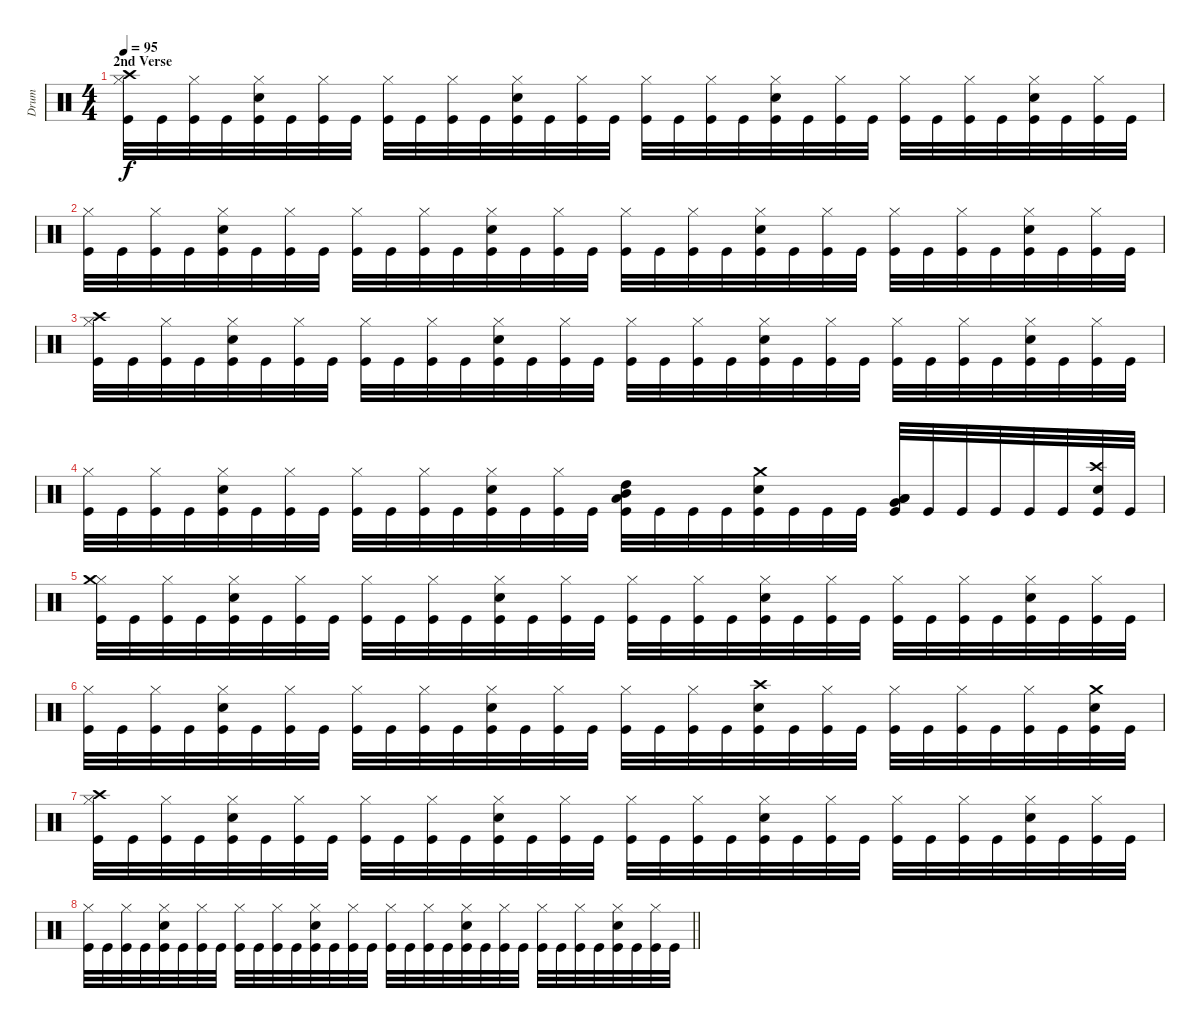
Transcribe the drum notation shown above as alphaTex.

\track ("Drum" "Drum") {instrument percussion}
\staff {score}
\articulation defaults
\ts (4 4)
\section ("" "2nd Verse")
\tempo 95
\clef neutral
\ks c
("Kick (hit)" "Hi-Hat (closed)" "Crash high (hit)").32{dy f} "Kick (hit)".32 ("Kick (hit)" "Hi-Hat (closed)").32 "Kick (hit)".32 ("Kick (hit)" "Hi-Hat (closed)" "Electric Snare (hit)").32 "Kick (hit)".32 ("Kick (hit)" "Hi-Hat (closed)").32 "Kick (hit)".32 ("Kick (hit)" "Hi-Hat (closed)").32 "Kick (hit)".32 ("Kick (hit)" "Hi-Hat (closed)").32 "Kick (hit)".32 ("Kick (hit)" "Hi-Hat (closed)" "Electric Snare (hit)").32 "Kick (hit)".32 ("Kick (hit)" "Hi-Hat (closed)").32 "Kick (hit)".32 ("Kick (hit)" "Hi-Hat (closed)").32 "Kick (hit)".32 ("Kick (hit)" "Hi-Hat (closed)").32 "Kick (hit)".32 ("Kick (hit)" "Hi-Hat (closed)" "Electric Snare (hit)").32 "Kick (hit)".32 ("Kick (hit)" "Hi-Hat (closed)").32 "Kick (hit)".32 ("Kick (hit)" "Hi-Hat (closed)").32 "Kick (hit)".32 ("Kick (hit)" "Hi-Hat (closed)").32 "Kick (hit)".32 ("Kick (hit)" "Hi-Hat (closed)" "Electric Snare (hit)").32 "Kick (hit)".32 ("Kick (hit)" "Hi-Hat (closed)").32 "Kick (hit)".32 |
("Kick (hit)" "Hi-Hat (closed)").32 "Kick (hit)".32 ("Kick (hit)" "Hi-Hat (closed)").32 "Kick (hit)".32 ("Kick (hit)" "Hi-Hat (closed)" "Electric Snare (hit)").32 "Kick (hit)".32 ("Kick (hit)" "Hi-Hat (closed)").32 "Kick (hit)".32 ("Kick (hit)" "Hi-Hat (closed)").32 "Kick (hit)".32 ("Kick (hit)" "Hi-Hat (closed)").32 "Kick (hit)".32 ("Kick (hit)" "Hi-Hat (closed)" "Electric Snare (hit)").32 "Kick (hit)".32 ("Kick (hit)" "Hi-Hat (closed)").32 "Kick (hit)".32 ("Kick (hit)" "Hi-Hat (closed)").32 "Kick (hit)".32 ("Kick (hit)" "Hi-Hat (closed)").32 "Kick (hit)".32 ("Kick (hit)" "Hi-Hat (closed)" "Electric Snare (hit)").32 "Kick (hit)".32 ("Kick (hit)" "Hi-Hat (closed)").32 "Kick (hit)".32 ("Kick (hit)" "Hi-Hat (closed)").32 "Kick (hit)".32 ("Kick (hit)" "Hi-Hat (closed)").32 "Kick (hit)".32 ("Kick (hit)" "Hi-Hat (closed)" "Electric Snare (hit)").32 "Kick (hit)".32 ("Kick (hit)" "Hi-Hat (closed)").32 "Kick (hit)".32 |
("Kick (hit)" "Hi-Hat (closed)" "Crash high (hit)").32 "Kick (hit)".32 ("Kick (hit)" "Hi-Hat (closed)").32 "Kick (hit)".32 ("Kick (hit)" "Hi-Hat (closed)" "Electric Snare (hit)").32 "Kick (hit)".32 ("Kick (hit)" "Hi-Hat (closed)").32 "Kick (hit)".32 ("Kick (hit)" "Hi-Hat (closed)").32 "Kick (hit)".32 ("Kick (hit)" "Hi-Hat (closed)").32 "Kick (hit)".32 ("Kick (hit)" "Hi-Hat (closed)" "Electric Snare (hit)").32 "Kick (hit)".32 ("Kick (hit)" "Hi-Hat (closed)").32 "Kick (hit)".32 ("Kick (hit)" "Hi-Hat (closed)").32 "Kick (hit)".32 ("Kick (hit)" "Hi-Hat (closed)").32 "Kick (hit)".32 ("Kick (hit)" "Hi-Hat (closed)" "Electric Snare (hit)").32 "Kick (hit)".32 ("Kick (hit)" "Hi-Hat (closed)").32 "Kick (hit)".32 ("Kick (hit)" "Hi-Hat (closed)").32 "Kick (hit)".32 ("Kick (hit)" "Hi-Hat (closed)").32 "Kick (hit)".32 ("Kick (hit)" "Hi-Hat (closed)" "Electric Snare (hit)").32 "Kick (hit)".32 ("Kick (hit)" "Hi-Hat (closed)").32 "Kick (hit)".32 |
("Kick (hit)" "Hi-Hat (closed)").32 "Kick (hit)".32 ("Kick (hit)" "Hi-Hat (closed)").32 "Kick (hit)".32 ("Kick (hit)" "Hi-Hat (closed)" "Electric Snare (hit)").32 "Kick (hit)".32 ("Kick (hit)" "Hi-Hat (closed)").32 "Kick (hit)".32 ("Kick (hit)" "Hi-Hat (closed)").32 "Kick (hit)".32 ("Kick (hit)" "Hi-Hat (closed)").32 "Kick (hit)".32 ("Kick (hit)" "Hi-Hat (closed)" "Electric Snare (hit)").32 "Kick (hit)".32 ("Kick (hit)" "Hi-Hat (closed)").32 "Kick (hit)".32 ("Kick (hit)" "High Tom (hit)" "Mid Tom (hit)" "Low Tom (hit)").32{bd 480} "Kick (hit)".32 "Kick (hit)".32 "Kick (hit)".32 ("Kick (hit)" "Electric Snare (hit)" "Crash medium (hit)").32 "Kick (hit)".32 "Kick (hit)".32 "Kick (hit)".32 ("Kick (hit)" "Low Tom (hit)" "Very Low Tom (hit)" "Low Floor Tom (hit)").32{bd 480} "Kick (hit)".32 "Kick (hit)".32 "Kick (hit)".32 "Kick (hit)".32 "Kick (hit)".32 ("Kick (hit)" "Electric Snare (hit)" "Crash high (hit)").32 "Kick (hit)".32 |
("Kick (hit)" "Hi-Hat (closed)" "Crash medium (hit)").32 "Kick (hit)".32 ("Kick (hit)" "Hi-Hat (closed)").32 "Kick (hit)".32 ("Kick (hit)" "Hi-Hat (closed)" "Electric Snare (hit)").32 "Kick (hit)".32 ("Kick (hit)" "Hi-Hat (closed)").32 "Kick (hit)".32 ("Kick (hit)" "Hi-Hat (closed)").32 "Kick (hit)".32 ("Kick (hit)" "Hi-Hat (closed)").32 "Kick (hit)".32 ("Kick (hit)" "Hi-Hat (closed)" "Electric Snare (hit)").32 "Kick (hit)".32 ("Kick (hit)" "Hi-Hat (closed)").32 "Kick (hit)".32 ("Kick (hit)" "Hi-Hat (closed)").32 "Kick (hit)".32 ("Kick (hit)" "Hi-Hat (closed)").32 "Kick (hit)".32 ("Kick (hit)" "Hi-Hat (closed)" "Electric Snare (hit)").32 "Kick (hit)".32 ("Kick (hit)" "Hi-Hat (closed)").32 "Kick (hit)".32 ("Kick (hit)" "Hi-Hat (closed)").32 "Kick (hit)".32 ("Kick (hit)" "Hi-Hat (closed)").32 "Kick (hit)".32 ("Kick (hit)" "Hi-Hat (closed)" "Electric Snare (hit)").32 "Kick (hit)".32 ("Kick (hit)" "Hi-Hat (closed)").32 "Kick (hit)".32 |
("Kick (hit)" "Hi-Hat (closed)").32 "Kick (hit)".32 ("Kick (hit)" "Hi-Hat (closed)").32 "Kick (hit)".32 ("Kick (hit)" "Hi-Hat (closed)" "Electric Snare (hit)").32 "Kick (hit)".32 ("Kick (hit)" "Hi-Hat (closed)").32 "Kick (hit)".32 ("Kick (hit)" "Hi-Hat (closed)").32 "Kick (hit)".32 ("Kick (hit)" "Hi-Hat (closed)").32 "Kick (hit)".32 ("Kick (hit)" "Hi-Hat (closed)" "Electric Snare (hit)").32 "Kick (hit)".32 ("Kick (hit)" "Hi-Hat (closed)").32 "Kick (hit)".32 ("Kick (hit)" "Hi-Hat (closed)").32 "Kick (hit)".32 ("Kick (hit)" "Hi-Hat (closed)").32 "Kick (hit)".32 ("Kick (hit)" "Electric Snare (hit)" "Crash high (hit)").32 "Kick (hit)".32 ("Kick (hit)" "Hi-Hat (closed)").32 "Kick (hit)".32 ("Kick (hit)" "Hi-Hat (closed)").32 "Kick (hit)".32 ("Kick (hit)" "Hi-Hat (closed)").32 "Kick (hit)".32 ("Kick (hit)" "Hi-Hat (closed)").32 "Kick (hit)".32 ("Kick (hit)" "Electric Snare (hit)" "Crash medium (hit)").32 "Kick (hit)".32 |
("Kick (hit)" "Hi-Hat (closed)" "Crash high (hit)").32 "Kick (hit)".32 ("Kick (hit)" "Hi-Hat (closed)").32 "Kick (hit)".32 ("Kick (hit)" "Hi-Hat (closed)" "Electric Snare (hit)").32 "Kick (hit)".32 ("Kick (hit)" "Hi-Hat (closed)").32 "Kick (hit)".32 ("Kick (hit)" "Hi-Hat (closed)").32 "Kick (hit)".32 ("Kick (hit)" "Hi-Hat (closed)").32 "Kick (hit)".32 ("Kick (hit)" "Hi-Hat (closed)" "Electric Snare (hit)").32 "Kick (hit)".32 ("Kick (hit)" "Hi-Hat (closed)").32 "Kick (hit)".32 ("Kick (hit)" "Hi-Hat (closed)").32 "Kick (hit)".32 ("Kick (hit)" "Hi-Hat (closed)").32 "Kick (hit)".32 ("Kick (hit)" "Hi-Hat (closed)" "Electric Snare (hit)").32 "Kick (hit)".32 ("Kick (hit)" "Hi-Hat (closed)").32 "Kick (hit)".32 ("Kick (hit)" "Hi-Hat (closed)").32 "Kick (hit)".32 ("Kick (hit)" "Hi-Hat (closed)").32 "Kick (hit)".32 ("Kick (hit)" "Hi-Hat (closed)" "Electric Snare (hit)").32 "Kick (hit)".32 ("Kick (hit)" "Hi-Hat (closed)").32 "Kick (hit)".32 |
\barLineRight lightlight
("Kick (hit)" "Hi-Hat (closed)").32 "Kick (hit)".32 ("Kick (hit)" "Hi-Hat (closed)").32 "Kick (hit)".32 ("Kick (hit)" "Hi-Hat (closed)" "Electric Snare (hit)").32 "Kick (hit)".32 ("Kick (hit)" "Hi-Hat (closed)").32 "Kick (hit)".32 ("Kick (hit)" "Hi-Hat (closed)").32 "Kick (hit)".32 ("Kick (hit)" "Hi-Hat (closed)").32 "Kick (hit)".32 ("Kick (hit)" "Hi-Hat (closed)" "Electric Snare (hit)").32 "Kick (hit)".32 ("Kick (hit)" "Hi-Hat (closed)").32 "Kick (hit)".32 ("Kick (hit)" "Hi-Hat (closed)").32 "Kick (hit)".32 ("Kick (hit)" "Hi-Hat (closed)").32 "Kick (hit)".32 ("Kick (hit)" "Hi-Hat (closed)" "Electric Snare (hit)").32 "Kick (hit)".32 ("Kick (hit)" "Hi-Hat (closed)").32 "Kick (hit)".32 ("Kick (hit)" "Hi-Hat (closed)").32 "Kick (hit)".32 ("Kick (hit)" "Hi-Hat (closed)").32 "Kick (hit)".32 ("Kick (hit)" "Hi-Hat (closed)" "Electric Snare (hit)").32 "Kick (hit)".32 ("Kick (hit)" "Hi-Hat (closed)").32 "Kick (hit)".32
